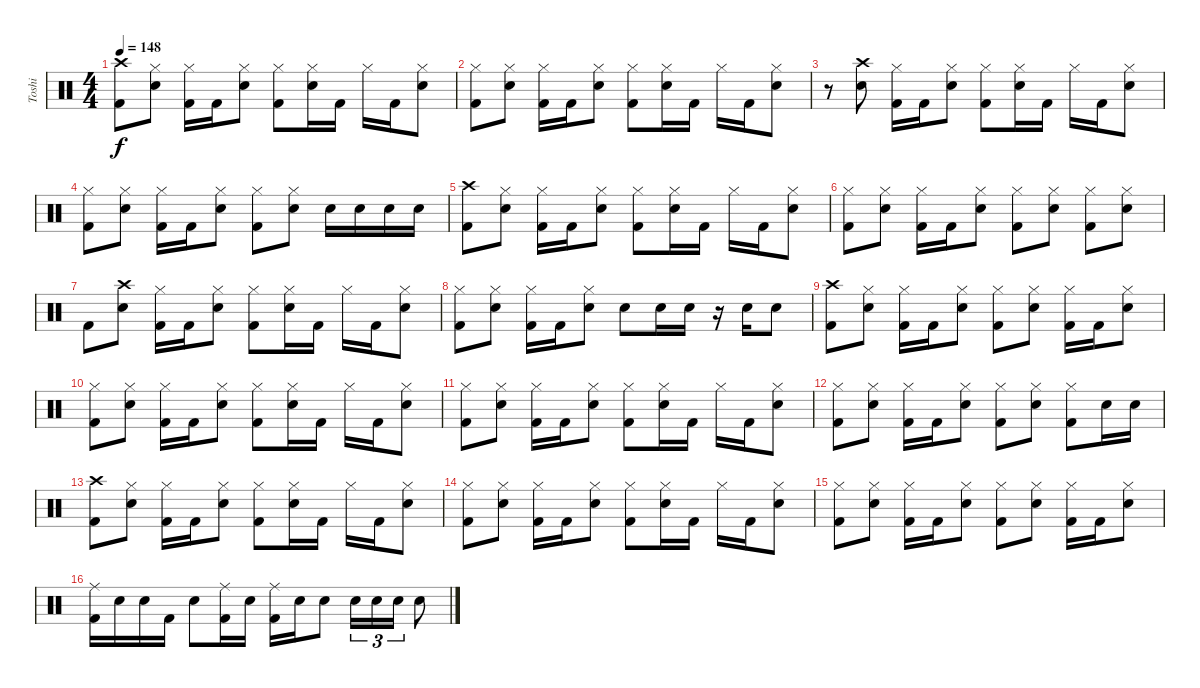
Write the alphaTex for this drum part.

\track ("Toshi" "Toshi") {instrument percussion}
\staff {score}
\articulation defaults
\ts (4 4)
\tempo 148
\clef neutral
\ks c
("Crash high (hit)" "Kick (hit) 2").8{dy f} ("Hi-Hat (closed)" "Snare (hit) 2").8 ("Hi-Hat (closed)" "Kick (hit) 2").16 "Kick (hit) 2".16 ("Hi-Hat (closed)" "Snare (hit) 2").8 ("Hi-Hat (closed)" "Kick (hit) 2").8 ("Hi-Hat (closed)" "Snare (hit) 2").16 "Kick (hit) 2".16 "Hi-Hat (closed)".16 "Kick (hit) 2".16 ("Hi-Hat (closed)" "Snare (hit) 2").8 |
("Hi-Hat (closed)" "Kick (hit) 2").8 ("Hi-Hat (closed)" "Snare (hit) 2").8 ("Hi-Hat (closed)" "Kick (hit) 2").16 "Kick (hit) 2".16 ("Hi-Hat (closed)" "Snare (hit) 2").8 ("Hi-Hat (closed)" "Kick (hit) 2").8 ("Hi-Hat (closed)" "Snare (hit) 2").16 "Kick (hit) 2".16 "Hi-Hat (closed)".16 "Kick (hit) 2".16 ("Hi-Hat (closed)" "Snare (hit) 2").8 |
r.8 ("Crash high (hit)" "Snare (hit) 2").8 ("Hi-Hat (closed)" "Kick (hit) 2").16 "Kick (hit) 2".16 ("Hi-Hat (closed)" "Snare (hit) 2").8 ("Hi-Hat (closed)" "Kick (hit) 2").8 ("Hi-Hat (closed)" "Snare (hit) 2").16 "Kick (hit) 2".16 "Hi-Hat (closed)".16 "Kick (hit) 2".16 ("Hi-Hat (closed)" "Snare (hit) 2").8 |
("Hi-Hat (closed)" "Kick (hit) 2").8 ("Hi-Hat (closed)" "Snare (hit) 2").8 ("Hi-Hat (closed)" "Kick (hit) 2").16 "Kick (hit) 2".16 ("Hi-Hat (closed)" "Snare (hit) 2").8 ("Hi-Hat (closed)" "Kick (hit) 2").8 ("Hi-Hat (closed)" "Snare (hit) 2").8 "Snare (hit) 2".16 "Snare (hit) 2".16 "Snare (hit) 2".16 "Snare (hit) 2".16 |
("Crash high (hit)" "Kick (hit) 2").8 ("Hi-Hat (closed)" "Snare (hit) 2").8 ("Hi-Hat (closed)" "Kick (hit) 2").16 "Kick (hit) 2".16 ("Hi-Hat (closed)" "Snare (hit) 2").8 ("Hi-Hat (closed)" "Kick (hit) 2").8 ("Hi-Hat (closed)" "Snare (hit) 2").16 "Kick (hit) 2".16 "Hi-Hat (closed)".16 "Kick (hit) 2".16 ("Hi-Hat (closed)" "Snare (hit) 2").8 |
("Hi-Hat (closed)" "Kick (hit) 2").8 ("Hi-Hat (closed)" "Snare (hit) 2").8 ("Hi-Hat (closed)" "Kick (hit) 2").16 "Kick (hit) 2".16 ("Hi-Hat (closed)" "Snare (hit) 2").8 ("Hi-Hat (closed)" "Kick (hit) 2").8 ("Hi-Hat (closed)" "Snare (hit) 2").8 ("Hi-Hat (closed)" "Kick (hit) 2").8 ("Hi-Hat (closed)" "Snare (hit) 2").8 |
"Kick (hit) 2".8 ("Crash high (hit)" "Snare (hit) 2").8 ("Hi-Hat (closed)" "Kick (hit) 2").16 "Kick (hit) 2".16 ("Hi-Hat (closed)" "Snare (hit) 2").8 ("Hi-Hat (closed)" "Kick (hit) 2").8 ("Hi-Hat (closed)" "Snare (hit) 2").16 "Kick (hit) 2".16 "Hi-Hat (closed)".16 "Kick (hit) 2".16 ("Hi-Hat (closed)" "Snare (hit) 2").8 |
("Hi-Hat (closed)" "Kick (hit) 2").8 ("Hi-Hat (closed)" "Snare (hit) 2").8 ("Hi-Hat (closed)" "Kick (hit) 2").16 "Kick (hit) 2".16 ("Hi-Hat (closed)" "Snare (hit) 2").8 "Snare (hit) 2".8 "Snare (hit) 2".16 "Snare (hit) 2".16 r.16 "Snare (hit) 2".16 "Snare (hit) 2".8 |
("Crash high (hit)" "Kick (hit) 2").8 ("Hi-Hat (closed)" "Snare (hit) 2").8 ("Hi-Hat (closed)" "Kick (hit) 2").16 "Kick (hit) 2".16 ("Hi-Hat (closed)" "Snare (hit) 2").8 ("Hi-Hat (closed)" "Kick (hit) 2").8 ("Hi-Hat (closed)" "Snare (hit) 2").8 ("Hi-Hat (closed)" "Kick (hit) 2").16 "Kick (hit) 2".16 ("Hi-Hat (closed)" "Snare (hit) 2").8 |
("Hi-Hat (closed)" "Kick (hit) 2").8 ("Hi-Hat (closed)" "Snare (hit) 2").8 ("Hi-Hat (closed)" "Kick (hit) 2").16 "Kick (hit) 2".16 ("Hi-Hat (closed)" "Snare (hit) 2").8 ("Hi-Hat (closed)" "Kick (hit) 2").8 ("Hi-Hat (closed)" "Snare (hit) 2").16 "Kick (hit) 2".16 "Hi-Hat (closed)".16 "Kick (hit) 2".16 ("Hi-Hat (closed)" "Snare (hit) 2").8 |
("Hi-Hat (closed)" "Kick (hit) 2").8 ("Hi-Hat (closed)" "Snare (hit) 2").8 ("Hi-Hat (closed)" "Kick (hit) 2").16 "Kick (hit) 2".16 ("Hi-Hat (closed)" "Snare (hit) 2").8 ("Hi-Hat (closed)" "Kick (hit) 2").8 ("Hi-Hat (closed)" "Snare (hit) 2").16 "Kick (hit) 2".16 "Hi-Hat (closed)".16 "Kick (hit) 2".16 ("Hi-Hat (closed)" "Snare (hit) 2").8 |
("Hi-Hat (closed)" "Kick (hit) 2").8 ("Hi-Hat (closed)" "Snare (hit) 2").8 ("Hi-Hat (closed)" "Kick (hit) 2").16 "Kick (hit) 2".16 ("Hi-Hat (closed)" "Snare (hit) 2").8 ("Hi-Hat (closed)" "Kick (hit) 2").8 ("Hi-Hat (closed)" "Snare (hit) 2").8 ("Hi-Hat (closed)" "Kick (hit) 2").8 "Snare (hit) 2".16 "Snare (hit) 2".16 |
("Crash high (hit)" "Kick (hit) 2").8 ("Hi-Hat (closed)" "Snare (hit) 2").8 ("Hi-Hat (closed)" "Kick (hit) 2").16 "Kick (hit) 2".16 ("Hi-Hat (closed)" "Snare (hit) 2").8 ("Hi-Hat (closed)" "Kick (hit) 2").8 ("Hi-Hat (closed)" "Snare (hit) 2").16 "Kick (hit) 2".16 "Hi-Hat (closed)".16 "Kick (hit) 2".16 ("Hi-Hat (closed)" "Snare (hit) 2").8 |
("Hi-Hat (closed)" "Kick (hit) 2").8 ("Hi-Hat (closed)" "Snare (hit) 2").8 ("Hi-Hat (closed)" "Kick (hit) 2").16 "Kick (hit) 2".16 ("Hi-Hat (closed)" "Snare (hit) 2").8 ("Hi-Hat (closed)" "Kick (hit) 2").8 ("Hi-Hat (closed)" "Snare (hit) 2").16 "Kick (hit) 2".16 "Hi-Hat (closed)".16 "Kick (hit) 2".16 ("Hi-Hat (closed)" "Snare (hit) 2").8 |
("Hi-Hat (closed)" "Kick (hit) 2").8 ("Hi-Hat (closed)" "Snare (hit) 2").8 ("Hi-Hat (closed)" "Kick (hit) 2").16 "Kick (hit) 2".16 ("Hi-Hat (closed)" "Snare (hit) 2").8 ("Hi-Hat (closed)" "Kick (hit) 2").8 ("Hi-Hat (closed)" "Snare (hit) 2").8 ("Hi-Hat (closed)" "Kick (hit) 2").16 "Kick (hit) 2".16 ("Hi-Hat (closed)" "Snare (hit) 2").8 |
("Ride (middle)" "Kick (hit) 2").16 "Snare (hit) 2".16 "Snare (hit) 2".16 "Kick (hit) 2".16 "Snare (hit) 2".8 ("Ride (middle)" "Kick (hit) 2").16 "Snare (hit) 2".16 ("Ride (middle)" "Kick (hit) 2").16 "Snare (hit) 2".16 "Snare (hit) 2".8 "Snare (hit) 2".16{tu (3 2)} "Snare (hit) 2".16{tu (3 2)} "Snare (hit) 2".16{tu (3 2)} "Snare (hit) 2".8
